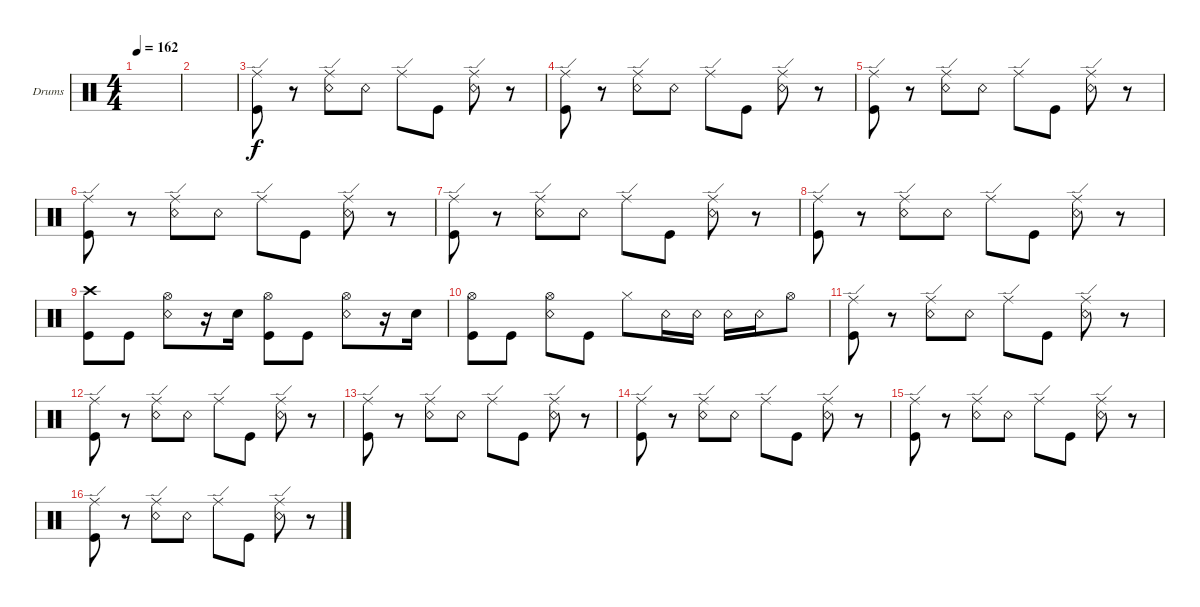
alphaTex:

\defaultSystemsLayout 4
\bracketExtendMode groupsimilarinstruments
\firstSystemTrackNameOrientation horizontal
\otherSystemsTrackNameOrientation horizontal
\track ("Drumkit" "Drums") {instrument percussion}
\staff {score}
\articulation defaults
\ts (4 4)
\tempo 162
\clef neutral
\ks c
|
|
("Ride (edge)" "Kick (hit)").8 r.8 ("Ride (edge)" "Snare (rim shot)").8 "Snare (rim shot)".8 "Ride (edge)".8 "Kick (hit)".8 ("Snare (rim shot)" "Ride (edge)").8 r.8 |
("Ride (edge)" "Kick (hit)").8 r.8 ("Ride (edge)" "Snare (rim shot)").8 "Snare (rim shot)".8 "Ride (edge)".8 "Kick (hit)".8 ("Snare (rim shot)" "Ride (edge)").8 r.8 |
("Ride (edge)" "Kick (hit)").8 r.8 ("Ride (edge)" "Snare (rim shot)").8 "Snare (rim shot)".8 "Ride (edge)".8 "Kick (hit)".8 ("Snare (rim shot)" "Ride (edge)").8 r.8 |
("Ride (edge)" "Kick (hit)").8 r.8 ("Ride (edge)" "Snare (rim shot)").8 "Snare (rim shot)".8 "Ride (edge)".8 "Kick (hit)".8 ("Snare (rim shot)" "Ride (edge)").8 r.8 |
("Ride (edge)" "Kick (hit)").8 r.8 ("Ride (edge)" "Snare (rim shot)").8 "Snare (rim shot)".8 "Ride (edge)".8 "Kick (hit)".8 ("Snare (rim shot)" "Ride (edge)").8 r.8 |
("Ride (edge)" "Kick (hit)").8 r.8 ("Ride (edge)" "Snare (rim shot)").8 "Snare (rim shot)".8 "Ride (edge)".8 "Kick (hit)".8 ("Snare (rim shot)" "Ride (edge)").8 r.8 |
("Kick (hit)" "Crash high (hit)").8 "Kick (hit)".8 ("Snare (rim shot)" "Hi-Hat (open)").8 r.16 "Snare (hit) 2".16 ("Kick (hit)" "Hi-Hat (open)").8 "Kick (hit)".8 ("Snare (rim shot)" "Hi-Hat (open)").8 r.16 "Snare (hit) 2".16 |
("Kick (hit)" "Hi-Hat (open)").8 "Kick (hit)".8 ("Snare (rim shot)" "Hi-Hat (open)").8 "Kick (hit)".8 "Hi-Hat (closed)".8 "Snare (rim shot)".16 "Snare (rim shot)".16 "Snare (rim shot)".16 "Snare (rim shot)".16 "Hi-Hat (open)".8 |
("Ride (edge)" "Kick (hit)").8 r.8 ("Ride (edge)" "Snare (rim shot)").8 "Snare (rim shot)".8 "Ride (edge)".8 "Kick (hit)".8 ("Snare (rim shot)" "Ride (edge)").8 r.8 |
("Ride (edge)" "Kick (hit)").8 r.8 ("Ride (edge)" "Snare (rim shot)").8 "Snare (rim shot)".8 "Ride (edge)".8 "Kick (hit)".8 ("Snare (rim shot)" "Ride (edge)").8 r.8 |
("Ride (edge)" "Kick (hit)").8 r.8 ("Ride (edge)" "Snare (rim shot)").8 "Snare (rim shot)".8 "Ride (edge)".8 "Kick (hit)".8 ("Snare (rim shot)" "Ride (edge)").8 r.8 |
("Ride (edge)" "Kick (hit)").8 r.8 ("Ride (edge)" "Snare (rim shot)").8 "Snare (rim shot)".8 "Ride (edge)".8 "Kick (hit)".8 ("Snare (rim shot)" "Ride (edge)").8 r.8 |
("Ride (edge)" "Kick (hit)").8 r.8 ("Ride (edge)" "Snare (rim shot)").8 "Snare (rim shot)".8 "Ride (edge)".8 "Kick (hit)".8 ("Snare (rim shot)" "Ride (edge)").8 r.8 |
("Ride (edge)" "Kick (hit)").8 r.8 ("Ride (edge)" "Snare (rim shot)").8 "Snare (rim shot)".8 "Ride (edge)".8 "Kick (hit)".8 ("Snare (rim shot)" "Ride (edge)").8 r.8
